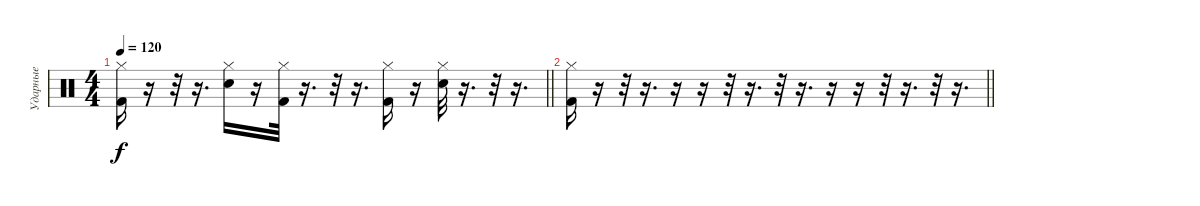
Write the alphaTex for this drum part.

\track ("Ударные" "Ударные") {instrument percussion}
\staff {score}
\articulation defaults
\ts (4 4)
\tempo 120
\clef neutral
\barLineRight lightlight
\ks c
("Hi-Hat (closed)" "Kick (hit) 2").16{dy f} r.16 r.32 r.16{d} ("Hi-Hat (closed)" "Electric Snare (hit)").16 r.16 ("Hi-Hat (closed)" "Kick (hit) 2").32 r.16{d} r.32 r.16{d} ("Kick (hit) 2" "Hi-Hat (closed)").16 r.16 ("Electric Snare (hit)" "Hi-Hat (closed)").32 r.16{d} r.32 r.16{d} |
\barLineRight lightlight
("Hi-Hat (closed)" "Kick (hit) 2").16 r.16 r.32 r.16{d} r.16 r.16 r.32 r.16{d} r.32 r.16{d} r.16 r.16 r.32 r.16{d} r.32 r.16{d}
